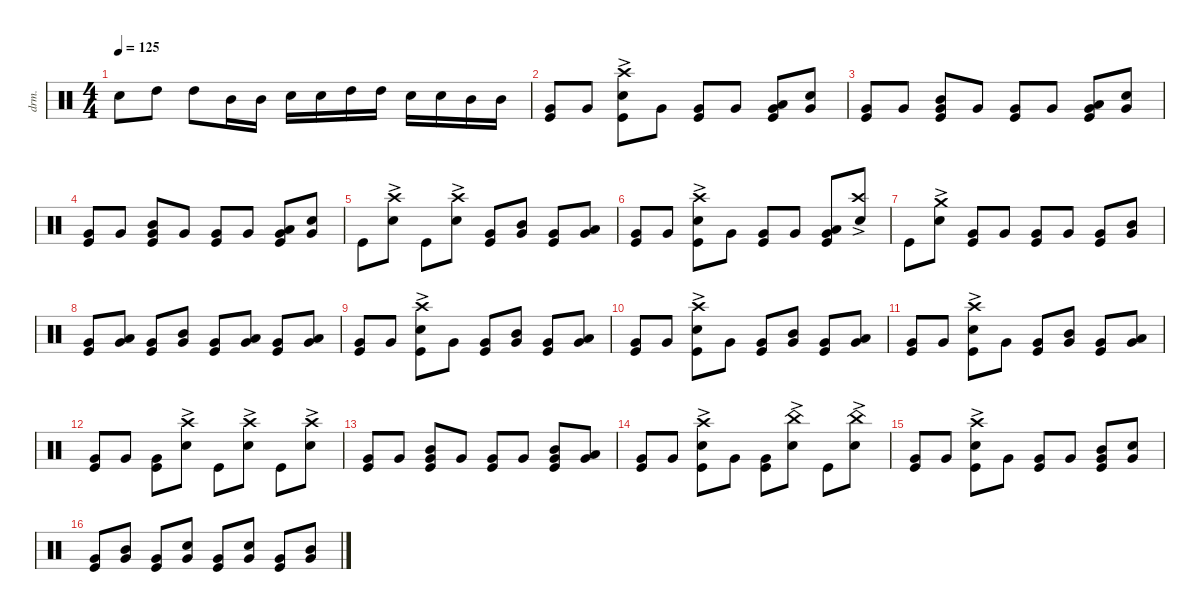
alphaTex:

\defaultSystemsLayout 4
\hideDynamics
\bracketExtendMode nobrackets
\track ("Drums" "drm.") {defaultSystemsLayout 4 multiBarRest instrument percussion}
\staff {score}
\articulation defaults
\ts (4 4)
\tempo 125
\clef neutral
\ks c "Snare (hit) 2".8{dy f beam Down} "High Tom (hit)".8{beam Down} "High Tom (hit)".8{beam Down} "Mid Tom (hit)".16{beam Down} "Mid Tom (hit)".16{beam Down} "Snare (hit) 2".16{beam Down} "Snare (hit) 2".16{beam Down} "High Tom (hit)".16{beam Down} "High Tom (hit)".16{beam Down} "Snare (hit) 2".16{beam Down} "Snare (hit) 2".16{beam Down} "Mid Tom (hit)".16{beam Down} "Mid Tom (hit)".16{beam Down}
|
("Kick (hit)" "Very Low Tom (hit)").8{beam Up} "Very Low Tom (hit)".8{dy mf beam Up} ("Kick (hit)" "Crash high (hit)"{ac} "Snare (hit) 2").8{dy f beam Down} "Very Low Tom (hit)".8{dy mf beam Down} ("Very Low Tom (hit)" "Kick (hit)").8{dy f beam Up} "Very Low Tom (hit)".8{dy mf beam Up} ("Very Low Tom (hit)" "Kick (hit)" "Low Tom (hit)").8{dy f beam Up} ("Very Low Tom (hit)" "Snare (hit) 2").8{beam Up} |
("Kick (hit)" "Very Low Tom (hit)").8{beam Up} "Very Low Tom (hit)".8{dy mf beam Up} ("Very Low Tom (hit)" "Kick (hit)" "Mid Tom (hit)").8{dy f beam Up} "Very Low Tom (hit)".8{dy mf beam Up} ("Very Low Tom (hit)" "Kick (hit)").8{dy f beam Up} "Very Low Tom (hit)".8{dy mf beam Up} ("Very Low Tom (hit)" "Kick (hit)" "Low Tom (hit)").8{dy f beam Up} ("Very Low Tom (hit)" "Snare (hit) 2").8{beam Up} |
("Kick (hit)" "Very Low Tom (hit)").8{beam Up} "Very Low Tom (hit)".8{dy mf beam Up} ("Very Low Tom (hit)" "Kick (hit)" "Mid Tom (hit)").8{dy f beam Up} "Very Low Tom (hit)".8{dy mf beam Up} ("Very Low Tom (hit)" "Kick (hit)").8{dy f beam Up} "Very Low Tom (hit)".8{dy mf beam Up} ("Very Low Tom (hit)" "Kick (hit)" "Low Tom (hit)").8{dy f beam Up} ("Very Low Tom (hit)" "Snare (hit) 2").8{beam Up} |
"Kick (hit)".8{beam Down} ("Crash high (hit)"{ac} "Snare (hit) 2").8{beam Down} "Kick (hit)".8{beam Down} ("Crash high (hit)"{ac} "Snare (hit) 2").8{beam Down} ("Kick (hit)" "Very Low Tom (hit)").8{beam Up} ("Very Low Tom (hit)" "Mid Tom (hit)").8{beam Up} ("Kick (hit)" "Very Low Tom (hit)").8{beam Up} ("Very Low Tom (hit)" "Low Tom (hit)").8{beam Up} |
("Kick (hit)" "Very Low Tom (hit)").8{beam Up} "Very Low Tom (hit)".8{dy mf beam Up} ("Kick (hit)" "Crash high (hit)"{ac} "Snare (hit) 2").8{dy f beam Down} "Very Low Tom (hit)".8{dy mf beam Down} ("Very Low Tom (hit)" "Kick (hit)").8{dy f beam Up} "Very Low Tom (hit)".8{dy mf beam Up} ("Very Low Tom (hit)" "Kick (hit)" "Low Tom (hit)").8{dy f beam Up} ("Snare (hit) 2" "Crash high (hit)"{ac}).8{beam Up} |
"Kick (hit)".8{beam Down} ("Snare (hit) 2" "Crash medium (hit)"{ac}).8{beam Down} ("Kick (hit)" "Very Low Tom (hit)").8{beam Up} "Very Low Tom (hit)".8{dy mf beam Up} ("Very Low Tom (hit)" "Kick (hit)").8{dy f beam Up} "Very Low Tom (hit)".8{dy mf beam Up} ("Very Low Tom (hit)" "Kick (hit)").8{dy f beam Up} ("Very Low Tom (hit)" "Mid Tom (hit)").8{beam Up} |
("Kick (hit)" "Very Low Tom (hit)").8{beam Up} ("Very Low Tom (hit)" "Low Tom (hit)").8{beam Up} ("Kick (hit)" "Very Low Tom (hit)").8{beam Up} ("Very Low Tom (hit)" "Mid Tom (hit)").8{beam Up} ("Kick (hit)" "Very Low Tom (hit)").8{beam Up} ("Very Low Tom (hit)" "Low Tom (hit)").8{beam Up} ("Kick (hit)" "Very Low Tom (hit)").8{beam Up} ("Very Low Tom (hit)" "Low Tom (hit)").8{beam Up} |
("Kick (hit)" "Very Low Tom (hit)").8{beam Up} "Very Low Tom (hit)".8{dy mf beam Up} ("Kick (hit)" "Snare (hit) 2" "Crash high (hit)"{ac}).8{dy f beam Down} "Very Low Tom (hit)".8{dy mf beam Down} ("Very Low Tom (hit)" "Kick (hit)").8{dy f beam Up} ("Very Low Tom (hit)" "Mid Tom (hit)").8{beam Up} ("Very Low Tom (hit)" "Kick (hit)").8{beam Up} ("Very Low Tom (hit)" "Low Tom (hit)").8{beam Up} |
("Kick (hit)" "Very Low Tom (hit)").8{beam Up} "Very Low Tom (hit)".8{dy mf beam Up} ("Kick (hit)" "Snare (hit) 2" "Crash high (hit)"{ac}).8{dy f beam Down} "Very Low Tom (hit)".8{dy mf beam Down} ("Very Low Tom (hit)" "Kick (hit)").8{dy f beam Up} ("Very Low Tom (hit)" "Mid Tom (hit)").8{beam Up} ("Very Low Tom (hit)" "Kick (hit)").8{beam Up} ("Very Low Tom (hit)" "Low Tom (hit)").8{beam Up} |
("Kick (hit)" "Very Low Tom (hit)").8{beam Up} "Very Low Tom (hit)".8{dy mf beam Up} ("Kick (hit)" "Snare (hit) 2" "Crash high (hit)"{ac}).8{dy f beam Down} "Very Low Tom (hit)".8{dy mf beam Down} ("Very Low Tom (hit)" "Kick (hit)").8{dy f beam Up} ("Very Low Tom (hit)" "Mid Tom (hit)").8{beam Up} ("Very Low Tom (hit)" "Kick (hit)").8{beam Up} ("Very Low Tom (hit)" "Low Tom (hit)").8{beam Up} |
("Kick (hit)" "Very Low Tom (hit)").8{beam Up} "Very Low Tom (hit)".8{dy mf beam Up} ("Very Low Tom (hit)" "Kick (hit)").8{dy f beam Down} ("Snare (hit) 2" "Crash high (hit)"{ac}).8{beam Down} "Kick (hit)".8{beam Down} ("Snare (hit) 2" "Crash high (hit)"{ac}).8{beam Down} "Kick (hit)".8{beam Down} ("Snare (hit) 2" "Crash high (hit)"{ac}).8{beam Down} |
("Kick (hit)" "Very Low Tom (hit)").8{beam Up} "Very Low Tom (hit)".8{dy mf beam Up} ("Very Low Tom (hit)" "Kick (hit)" "Mid Tom (hit)").8{dy f beam Up} "Very Low Tom (hit)".8{dy mf beam Up} ("Very Low Tom (hit)" "Kick (hit)").8{dy f beam Up} "Very Low Tom (hit)".8{dy mf beam Up} ("Very Low Tom (hit)" "Kick (hit)" "Mid Tom (hit)").8{dy f beam Up} ("Very Low Tom (hit)" "Low Tom (hit)").8{beam Up} |
("Kick (hit)" "Very Low Tom (hit)").8{beam Up} "Very Low Tom (hit)".8{dy mf beam Up} ("Kick (hit)" "Snare (hit) 2" "Crash high (hit)"{ac}).8{dy f beam Down} "Very Low Tom (hit)".8{dy mf beam Down} ("Very Low Tom (hit)" "Kick (hit)").8{dy f beam Down} ("Snare (hit) 2" "China (hit)"{ac}).8{beam Down} "Kick (hit)".8{beam Down} ("Snare (hit) 2" "China (hit)"{ac}).8{beam Down} |
("Kick (hit)" "Very Low Tom (hit)").8{beam Up} "Very Low Tom (hit)".8{dy mf beam Up} ("Kick (hit)" "Snare (hit) 2" "Crash high (hit)"{ac}).8{dy f beam Down} "Very Low Tom (hit)".8{dy mf beam Down} ("Very Low Tom (hit)" "Kick (hit)").8{dy f beam Up} "Very Low Tom (hit)".8{dy mf beam Up} ("Very Low Tom (hit)" "Kick (hit)" "Mid Tom (hit)").8{dy f beam Up} ("Very Low Tom (hit)" "Snare (hit) 2").8{beam Up} |
("Kick (hit)" "Very Low Tom (hit)").8{beam Up} ("Very Low Tom (hit)" "Mid Tom (hit)").8{beam Up} ("Very Low Tom (hit)" "Kick (hit)").8{beam Up} ("Very Low Tom (hit)" "Snare (hit) 2").8{beam Up} ("Very Low Tom (hit)" "Kick (hit)").8{beam Up} ("Very Low Tom (hit)" "Snare (hit) 2").8{beam Up} ("Very Low Tom (hit)" "Kick (hit)").8{beam Up} ("Very Low Tom (hit)" "Mid Tom (hit)").8{beam Up}
